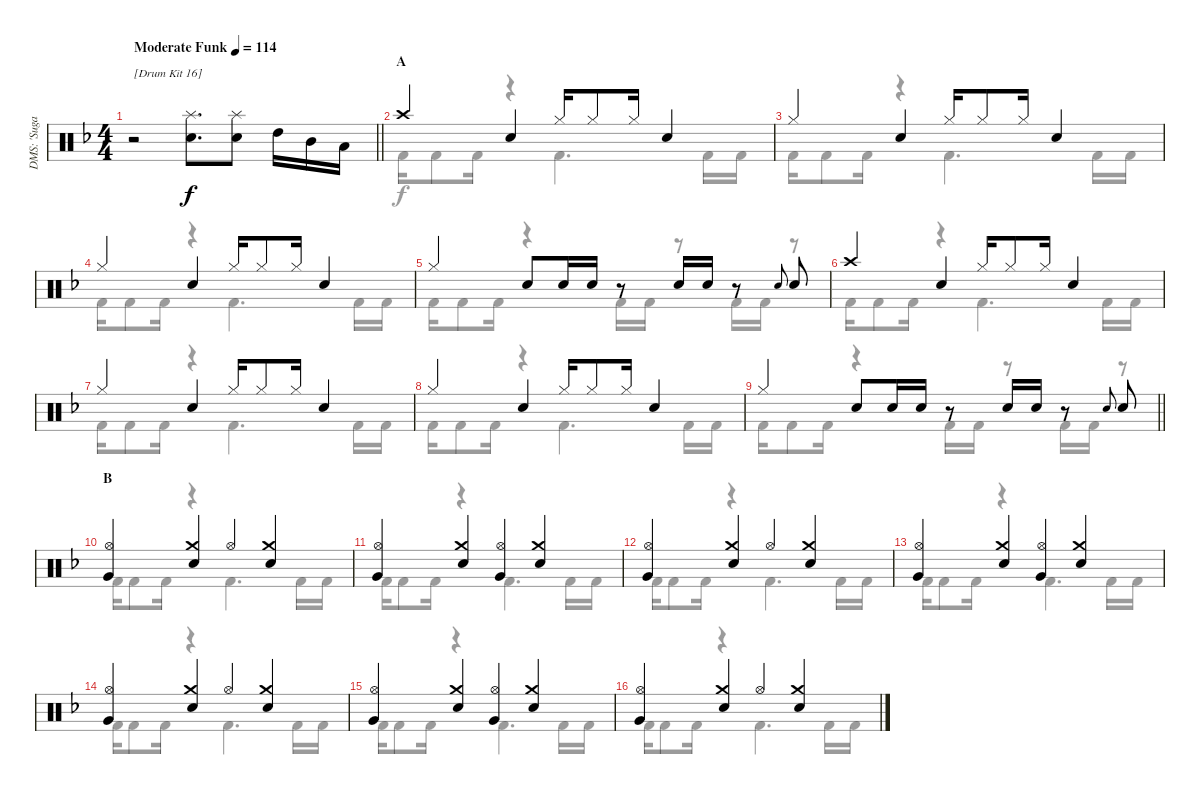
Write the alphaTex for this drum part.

\track ("DMS: 'Sugarfoot' Moffett" "DMS: 'Suga") {instrument percussion}
\staff {score}
\articulation defaults
\voice
\ts (4 4)
\tempo (114 "Moderate Funk")
\clef neutral
\barLineRight lightlight
\ks f
r.2{txt "[Drum Kit 16]" dy f} ("Splash (hit)" "Snare (hit) 2").8{d} ("Splash (hit)" "Snare (hit) 2").8 "High Tom (hit)".16 "Mid Tom (hit)".16 "Low Tom (hit)".16 |
\section ("" "A")
"Crash high (hit)".4 "Snare (hit) 2".4 "Hi-Hat (closed)".16 "Hi-Hat (closed)".8 "Hi-Hat (closed)".16 "Snare (hit) 2".4 |
"Hi-Hat (closed)".4 "Snare (hit) 2".4 "Hi-Hat (closed)".16 "Hi-Hat (closed)".8 "Hi-Hat (closed)".16 "Snare (hit) 2".4 |
"Hi-Hat (closed)".4 "Snare (hit) 2".4 "Hi-Hat (closed)".16 "Hi-Hat (closed)".8 "Hi-Hat (closed)".16 "Snare (hit) 2".4 |
"Hi-Hat (closed)".4 "Snare (hit) 2".8 "Electric Snare (hit)".16 "Electric Snare (hit)".16 r.8 "Electric Snare (hit)".16 "Electric Snare (hit)".16 r.8 "Electric Snare (hit)".8{gr onbeat} "Snare (hit) 2".8 |
"Crash high (hit)".4 "Snare (hit) 2".4 "Hi-Hat (closed)".16 "Hi-Hat (closed)".8 "Hi-Hat (closed)".16 "Snare (hit) 2".4 |
"Hi-Hat (closed)".4 "Snare (hit) 2".4 "Hi-Hat (closed)".16 "Hi-Hat (closed)".8 "Hi-Hat (closed)".16 "Snare (hit) 2".4 |
"Hi-Hat (closed)".4 "Snare (hit) 2".4 "Hi-Hat (closed)".16 "Hi-Hat (closed)".8 "Hi-Hat (closed)".16 "Snare (hit) 2".4 |
\barLineRight lightlight "Hi-Hat (closed)".4 "Snare (hit) 2".8 "Electric Snare (hit)".16 "Electric Snare (hit)".16
r.8 "Electric Snare (hit)".16 "Electric Snare (hit)".16 r.8 "Electric Snare (hit)".8{gr onbeat} "Snare (hit) 2".8 |
\section ("" "B")
("Hi-Hat (open)" "Very Low Tom (hit)").4 ("Crash medium (hit)" "Snare (hit) 2").4 "Hi-Hat (open)".4 ("Crash medium (hit)" "Snare (hit) 2").4 |
("Hi-Hat (open)" "Very Low Tom (hit)").4 ("Crash medium (hit)" "Snare (hit) 2").4 ("Hi-Hat (open)" "Very Low Tom (hit)").4 ("Crash medium (hit)" "Snare (hit) 2").4 |
("Hi-Hat (open)" "Very Low Tom (hit)").4 ("Crash medium (hit)" "Snare (hit) 2").4 "Hi-Hat (open)".4 ("Crash medium (hit)" "Snare (hit) 2").4 |
("Hi-Hat (open)" "Very Low Tom (hit)").4 ("Crash medium (hit)" "Snare (hit) 2").4 ("Hi-Hat (open)" "Very Low Tom (hit)").4 ("Crash medium (hit)" "Snare (hit) 2").4 |
("Hi-Hat (open)" "Very Low Tom (hit)").4 ("Crash medium (hit)" "Snare (hit) 2").4 "Hi-Hat (open)".4 ("Crash medium (hit)" "Snare (hit) 2").4 |
("Hi-Hat (open)" "Very Low Tom (hit)").4 ("Crash medium (hit)" "Snare (hit) 2").4 ("Hi-Hat (open)" "Very Low Tom (hit)").4 ("Crash medium (hit)" "Snare (hit) 2").4 |
("Hi-Hat (open)" "Very Low Tom (hit)").4 ("Crash medium (hit)" "Snare (hit) 2").4 "Hi-Hat (open)".4 ("Crash medium (hit)" "Snare (hit) 2").4
\voice
\clef neutral
\ottava regular
\simile none
\barLineRight lightlight
\ks f
|
"Kick (hit) 2".16 "Kick (hit) 2".8 "Kick (hit) 2".16 r.4 "Kick (hit) 2".4{d} "Kick (hit) 2".16 "Kick (hit) 2".16 |
"Kick (hit) 2".16 "Kick (hit) 2".8 "Kick (hit) 2".16 r.4 "Kick (hit) 2".4{d} "Kick (hit) 2".16 "Kick (hit) 2".16 |
"Kick (hit) 2".16 "Kick (hit) 2".8 "Kick (hit) 2".16 r.4 "Kick (hit) 2".4{d} "Kick (hit) 2".16 "Kick (hit) 2".16 |
"Kick (hit) 2".16 "Kick (hit) 2".8 "Kick (hit) 2".16 r.4 "Kick (hit) 2".16 "Kick (hit) 2".16 r.8 "Kick (hit) 2".16 "Kick (hit) 2".16 r.8 |
"Kick (hit) 2".16 "Kick (hit) 2".8 "Kick (hit) 2".16 r.4 "Kick (hit) 2".4{d} "Kick (hit) 2".16 "Kick (hit) 2".16 |
"Kick (hit) 2".16 "Kick (hit) 2".8 "Kick (hit) 2".16 r.4 "Kick (hit) 2".4{d} "Kick (hit) 2".16 "Kick (hit) 2".16 |
"Kick (hit) 2".16 "Kick (hit) 2".8 "Kick (hit) 2".16 r.4 "Kick (hit) 2".4{d} "Kick (hit) 2".16 "Kick (hit) 2".16 |
\barLineRight lightlight "Kick (hit) 2".16 "Kick (hit) 2".8 "Kick (hit) 2".16
r.4 "Kick (hit) 2".16 "Kick (hit) 2".16 r.8 "Kick (hit) 2".16 "Kick (hit) 2".16 r.8 |
"Kick (hit) 2".16 "Kick (hit) 2".8 "Kick (hit) 2".16 r.4 "Kick (hit) 2".4{d} "Kick (hit) 2".16 "Kick (hit) 2".16 |
"Kick (hit) 2".16 "Kick (hit) 2".8 "Kick (hit) 2".16 r.4 "Kick (hit) 2".4{d} "Kick (hit) 2".16 "Kick (hit) 2".16 |
"Kick (hit) 2".16 "Kick (hit) 2".8 "Kick (hit) 2".16 r.4 "Kick (hit) 2".4{d} "Kick (hit) 2".16 "Kick (hit) 2".16 |
"Kick (hit) 2".16 "Kick (hit) 2".8 "Kick (hit) 2".16 r.4 "Kick (hit) 2".4{d} "Kick (hit) 2".16 "Kick (hit) 2".16 |
"Kick (hit) 2".16 "Kick (hit) 2".8 "Kick (hit) 2".16 r.4 "Kick (hit) 2".4{d} "Kick (hit) 2".16 "Kick (hit) 2".16 |
"Kick (hit) 2".16 "Kick (hit) 2".8 "Kick (hit) 2".16 r.4 "Kick (hit) 2".4{d} "Kick (hit) 2".16 "Kick (hit) 2".16 |
"Kick (hit) 2".16 "Kick (hit) 2".8 "Kick (hit) 2".16 r.4 "Kick (hit) 2".4{d} "Kick (hit) 2".16 "Kick (hit) 2".16
